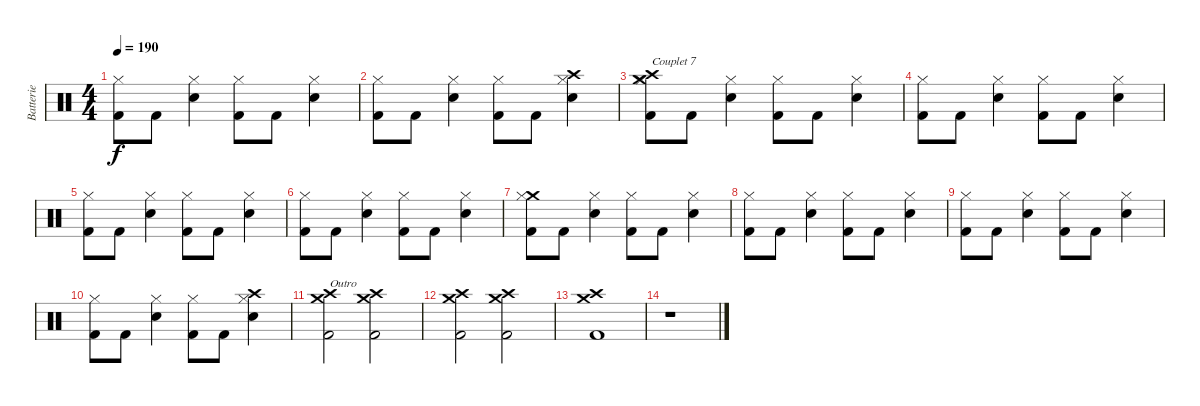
\track ("Batterie" "Batterie") {instrument percussion}
\staff {score}
\articulation defaults
\ts (4 4)
\tempo 190
\clef neutral
\ks c
("Hi-Hat (closed)" "Kick (hit) 2").8{dy f} "Kick (hit) 2".8 ("Electric Snare (hit)" "Hi-Hat (closed)").4 ("Hi-Hat (closed)" "Kick (hit) 2").8 "Kick (hit) 2".8 ("Electric Snare (hit)" "Hi-Hat (closed)").4 |
("Hi-Hat (closed)" "Kick (hit) 2").8 "Kick (hit) 2".8 ("Electric Snare (hit)" "Hi-Hat (closed)").4 ("Hi-Hat (closed)" "Kick (hit) 2").8 "Kick (hit) 2".8 ("Crash high (hit)" "Electric Snare (hit)" "Hi-Hat (closed)").4 |
("Crash medium (hit)" "Crash high (hit)" "Hi-Hat (closed)" "Kick (hit) 2").8{txt "Couplet 7"} "Kick (hit) 2".8 ("Electric Snare (hit)" "Hi-Hat (closed)").4 ("Hi-Hat (closed)" "Kick (hit) 2").8 "Kick (hit) 2".8 ("Electric Snare (hit)" "Hi-Hat (closed)").4 |
("Hi-Hat (closed)" "Kick (hit) 2").8 "Kick (hit) 2".8 ("Electric Snare (hit)" "Hi-Hat (closed)").4 ("Hi-Hat (closed)" "Kick (hit) 2").8 "Kick (hit) 2".8 ("Electric Snare (hit)" "Hi-Hat (closed)").4 |
("Hi-Hat (closed)" "Kick (hit) 2").8 "Kick (hit) 2".8 ("Electric Snare (hit)" "Hi-Hat (closed)").4 ("Hi-Hat (closed)" "Kick (hit) 2").8 "Kick (hit) 2".8 ("Electric Snare (hit)" "Hi-Hat (closed)").4 |
("Hi-Hat (closed)" "Kick (hit) 2").8 "Kick (hit) 2".8 ("Electric Snare (hit)" "Hi-Hat (closed)").4 ("Hi-Hat (closed)" "Kick (hit) 2").8 "Kick (hit) 2".8 ("Electric Snare (hit)" "Hi-Hat (closed)").4 |
("Crash medium (hit)" "Hi-Hat (closed)" "Kick (hit) 2").8 "Kick (hit) 2".8 ("Electric Snare (hit)" "Hi-Hat (closed)").4 ("Hi-Hat (closed)" "Kick (hit) 2").8 "Kick (hit) 2".8 ("Electric Snare (hit)" "Hi-Hat (closed)").4 |
("Hi-Hat (closed)" "Kick (hit) 2").8 "Kick (hit) 2".8 ("Electric Snare (hit)" "Hi-Hat (closed)").4 ("Hi-Hat (closed)" "Kick (hit) 2").8 "Kick (hit) 2".8 ("Electric Snare (hit)" "Hi-Hat (closed)").4 |
("Hi-Hat (closed)" "Kick (hit) 2").8 "Kick (hit) 2".8 ("Electric Snare (hit)" "Hi-Hat (closed)").4 ("Hi-Hat (closed)" "Kick (hit) 2").8 "Kick (hit) 2".8 ("Electric Snare (hit)" "Hi-Hat (closed)").4 |
("Hi-Hat (closed)" "Kick (hit) 2").8 "Kick (hit) 2".8 ("Electric Snare (hit)" "Hi-Hat (closed)").4 ("Hi-Hat (closed)" "Kick (hit) 2").8 "Kick (hit) 2".8 ("Crash high (hit)" "Electric Snare (hit)" "Hi-Hat (closed)").4 |
("Crash medium (hit)" "Crash high (hit)" "Kick (hit) 2").2{txt "Outro"} ("Crash medium (hit)" "Crash high (hit)" "Kick (hit) 2").2 |
("Crash medium (hit)" "Crash high (hit)" "Kick (hit) 2").2 ("Crash medium (hit)" "Crash high (hit)" "Kick (hit) 2").2 |
("Crash medium (hit)" "Crash high (hit)" "Kick (hit) 2").1 |
r.1
